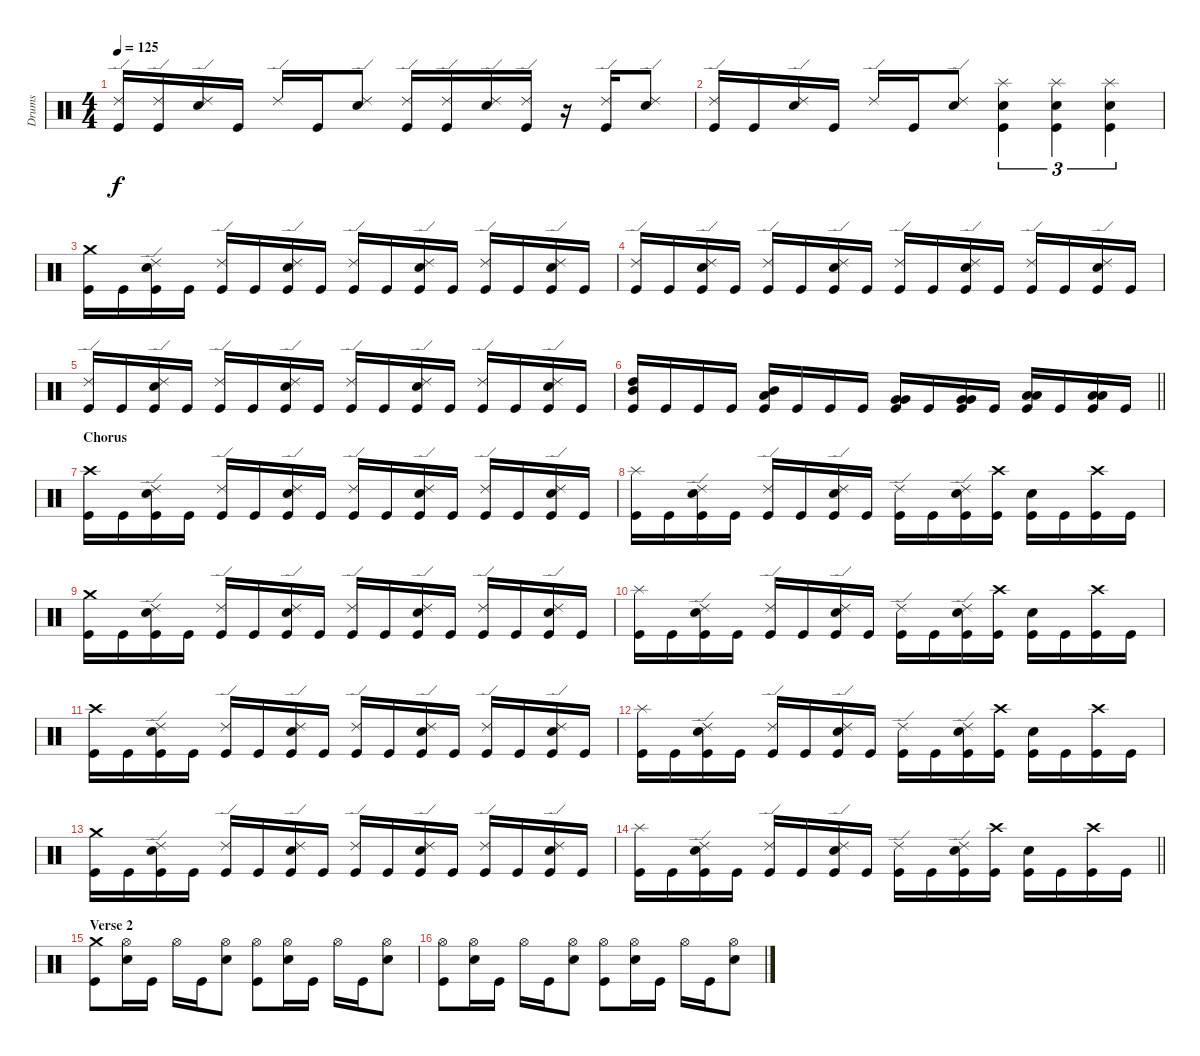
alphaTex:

\track ("Drums" "Drums") {instrument percussion}
\staff {score}
\articulation defaults
\ts (4 4)
\tempo 125
\clef neutral
\ks c
("Ride (edge) 2" "Kick (hit)").16{dy f} ("Ride (edge) 2" "Kick (hit)").16 ("Ride (edge) 2" "Snare (hit) 2").16 "Kick (hit)".16 "Ride (edge) 2".16 "Kick (hit)".16 ("Ride (edge) 2" "Snare (hit) 2").8 ("Ride (edge) 2" "Kick (hit)").16 ("Ride (edge) 2" "Kick (hit)").16 ("Ride (edge) 2" "Snare (hit) 2").16 ("Ride (edge) 2" "Kick (hit)").16 r.16 ("Ride (edge) 2" "Kick (hit)").16 ("Ride (edge) 2" "Snare (hit) 2").8 |
("Ride (edge) 2" "Kick (hit)").16 "Kick (hit)".16 ("Ride (edge) 2" "Snare (hit) 2").16 "Kick (hit)".16 "Ride (edge) 2".16 "Kick (hit)".16 ("Ride (edge) 2" "Snare (hit) 2").8 ("Splash (hit)" "Snare (hit) 2" "Kick (hit)").4{tu (3 2)} ("Splash (hit)" "Snare (hit) 2" "Kick (hit)").4{tu (3 2)} ("Splash (hit)" "Snare (hit) 2" "Kick (hit)").4{tu (3 2)} |
("Crash medium (hit)" "Kick (hit)").16 "Kick (hit)".16 ("Ride (edge) 2" "Snare (hit) 2" "Kick (hit)").16 "Kick (hit)".16 ("Ride (edge) 2" "Kick (hit)").16 "Kick (hit)".16 ("Ride (edge) 2" "Snare (hit) 2" "Kick (hit)").16 "Kick (hit)".16 ("Ride (edge) 2" "Kick (hit)").16 "Kick (hit)".16 ("Ride (edge) 2" "Snare (hit) 2" "Kick (hit)").16 "Kick (hit)".16 ("Ride (edge) 2" "Kick (hit)").16 "Kick (hit)".16 ("Ride (edge) 2" "Snare (hit) 2" "Kick (hit)").16 "Kick (hit)".16 |
("Ride (edge) 2" "Kick (hit)").16 "Kick (hit)".16 ("Ride (edge) 2" "Snare (hit) 2" "Kick (hit)").16 "Kick (hit)".16 ("Ride (edge) 2" "Kick (hit)").16 "Kick (hit)".16 ("Ride (edge) 2" "Snare (hit) 2" "Kick (hit)").16 "Kick (hit)".16 ("Ride (edge) 2" "Kick (hit)").16 "Kick (hit)".16 ("Ride (edge) 2" "Snare (hit) 2" "Kick (hit)").16 "Kick (hit)".16 ("Ride (edge) 2" "Kick (hit)").16 "Kick (hit)".16 ("Ride (edge) 2" "Snare (hit) 2" "Kick (hit)").16 "Kick (hit)".16 |
("Ride (edge) 2" "Kick (hit)").16 "Kick (hit)".16 ("Ride (edge) 2" "Snare (hit) 2" "Kick (hit)").16 "Kick (hit)".16 ("Ride (edge) 2" "Kick (hit)").16 "Kick (hit)".16 ("Ride (edge) 2" "Snare (hit) 2" "Kick (hit)").16 "Kick (hit)".16 ("Ride (edge) 2" "Kick (hit)").16 "Kick (hit)".16 ("Ride (edge) 2" "Snare (hit) 2" "Kick (hit)").16 "Kick (hit)".16 ("Ride (edge) 2" "Kick (hit)").16 "Kick (hit)".16 ("Ride (edge) 2" "Snare (hit) 2" "Kick (hit)").16 "Kick (hit)".16 |
\barLineRight lightlight
("High Tom (hit)" "Mid Tom (hit)" "Kick (hit)").16 "Kick (hit)".16 "Kick (hit)".16 "Kick (hit)".16 ("Mid Tom (hit)" "Low Tom (hit)" "Kick (hit)").16 "Kick (hit)".16 "Kick (hit)".16 "Kick (hit)".16 ("Very Low Tom (hit)" "Very Low Tom (hit)" "Kick (hit)").16 "Kick (hit)".16 ("Very Low Tom (hit)" "Very Low Tom (hit)" "Kick (hit)").16 "Kick (hit)".16 ("Low Floor Tom (hit)" "Low Floor Tom (hit)" "Kick (hit)").16 "Kick (hit)".16 ("Low Floor Tom (hit)" "Low Floor Tom (hit)" "Kick (hit)").16 "Kick (hit)".16 |
\section ("" "Chorus")
("Crash high (hit)" "Kick (hit)").16 "Kick (hit)".16 ("Ride (edge) 2" "Snare (hit) 2" "Kick (hit)").16 "Kick (hit)".16 ("Ride (edge) 2" "Kick (hit)").16 "Kick (hit)".16 ("Ride (edge) 2" "Snare (hit) 2" "Kick (hit)").16 "Kick (hit)".16 ("Ride (edge) 2" "Kick (hit)").16 "Kick (hit)".16 ("Ride (edge) 2" "Snare (hit) 2" "Kick (hit)").16 "Kick (hit)".16 ("Ride (edge) 2" "Kick (hit)").16 "Kick (hit)".16 ("Ride (edge) 2" "Snare (hit) 2" "Kick (hit)").16 "Kick (hit)".16 |
("Splash (hit)" "Kick (hit)").16 "Kick (hit)".16 ("Ride (edge) 2" "Snare (hit) 2" "Kick (hit)").16 "Kick (hit)".16 ("Ride (edge) 2" "Kick (hit)").16 "Kick (hit)".16 ("Ride (edge) 2" "Snare (hit) 2" "Kick (hit)").16 "Kick (hit)".16 ("Ride (edge) 2" "Kick (hit)").16 "Kick (hit)".16 ("Ride (edge) 2" "Snare (hit) 2" "Kick (hit)").16 ("Crash high (hit)" "Kick (hit)").16 ("Snare (hit) 2" "Kick (hit)").16 "Kick (hit)".16 ("Crash high (hit)" "Kick (hit)").16 "Kick (hit)".16 |
("Crash medium (hit)" "Kick (hit)").16 "Kick (hit)".16 ("Ride (edge) 2" "Snare (hit) 2" "Kick (hit)").16 "Kick (hit)".16 ("Ride (edge) 2" "Kick (hit)").16 "Kick (hit)".16 ("Ride (edge) 2" "Snare (hit) 2" "Kick (hit)").16 "Kick (hit)".16 ("Ride (edge) 2" "Kick (hit)").16 "Kick (hit)".16 ("Ride (edge) 2" "Snare (hit) 2" "Kick (hit)").16 "Kick (hit)".16 ("Ride (edge) 2" "Kick (hit)").16 "Kick (hit)".16 ("Ride (edge) 2" "Snare (hit) 2" "Kick (hit)").16 "Kick (hit)".16 |
("Splash (hit)" "Kick (hit)").16 "Kick (hit)".16 ("Ride (edge) 2" "Snare (hit) 2" "Kick (hit)").16 "Kick (hit)".16 ("Ride (edge) 2" "Kick (hit)").16 "Kick (hit)".16 ("Ride (edge) 2" "Snare (hit) 2" "Kick (hit)").16 "Kick (hit)".16 ("Ride (edge) 2" "Kick (hit)").16 "Kick (hit)".16 ("Ride (edge) 2" "Snare (hit) 2" "Kick (hit)").16 ("Crash high (hit)" "Kick (hit)").16 ("Snare (hit) 2" "Kick (hit)").16 "Kick (hit)".16 ("Crash high (hit)" "Kick (hit)").16 "Kick (hit)".16 |
("Crash high (hit)" "Kick (hit)").16 "Kick (hit)".16 ("Ride (edge) 2" "Snare (hit) 2" "Kick (hit)").16 "Kick (hit)".16 ("Ride (edge) 2" "Kick (hit)").16 "Kick (hit)".16 ("Ride (edge) 2" "Snare (hit) 2" "Kick (hit)").16 "Kick (hit)".16 ("Ride (edge) 2" "Kick (hit)").16 "Kick (hit)".16 ("Ride (edge) 2" "Snare (hit) 2" "Kick (hit)").16 "Kick (hit)".16 ("Ride (edge) 2" "Kick (hit)").16 "Kick (hit)".16 ("Ride (edge) 2" "Snare (hit) 2" "Kick (hit)").16 "Kick (hit)".16 |
("Splash (hit)" "Kick (hit)").16 "Kick (hit)".16 ("Ride (edge) 2" "Snare (hit) 2" "Kick (hit)").16 "Kick (hit)".16 ("Ride (edge) 2" "Kick (hit)").16 "Kick (hit)".16 ("Ride (edge) 2" "Snare (hit) 2" "Kick (hit)").16 "Kick (hit)".16 ("Ride (edge) 2" "Kick (hit)").16 "Kick (hit)".16 ("Ride (edge) 2" "Snare (hit) 2" "Kick (hit)").16 ("Crash high (hit)" "Kick (hit)").16 ("Snare (hit) 2" "Kick (hit)").16 "Kick (hit)".16 ("Crash high (hit)" "Kick (hit)").16 "Kick (hit)".16 |
("Crash medium (hit)" "Kick (hit)").16 "Kick (hit)".16 ("Ride (edge) 2" "Snare (hit) 2" "Kick (hit)").16 "Kick (hit)".16 ("Ride (edge) 2" "Kick (hit)").16 "Kick (hit)".16 ("Ride (edge) 2" "Snare (hit) 2" "Kick (hit)").16 "Kick (hit)".16 ("Ride (edge) 2" "Kick (hit)").16 "Kick (hit)".16 ("Ride (edge) 2" "Snare (hit) 2" "Kick (hit)").16 "Kick (hit)".16 ("Ride (edge) 2" "Kick (hit)").16 "Kick (hit)".16 ("Ride (edge) 2" "Snare (hit) 2" "Kick (hit)").16 "Kick (hit)".16 |
\barLineRight lightlight
("Splash (hit)" "Kick (hit)").16 "Kick (hit)".16 ("Ride (edge) 2" "Snare (hit) 2" "Kick (hit)").16 "Kick (hit)".16 ("Ride (edge) 2" "Kick (hit)").16 "Kick (hit)".16 ("Ride (edge) 2" "Snare (hit) 2" "Kick (hit)").16 "Kick (hit)".16 ("Ride (edge) 2" "Kick (hit)").16 "Kick (hit)".16 ("Ride (edge) 2" "Snare (hit) 2" "Kick (hit)").16 ("Crash high (hit)" "Kick (hit)").16 ("Snare (hit) 2" "Kick (hit)").16 "Kick (hit)".16 ("Crash high (hit)" "Kick (hit)").16 "Kick (hit)".16 |
\section ("" "Verse 2")
("Crash medium (hit)" "Kick (hit)").8 ("Hi-Hat (open)" "Snare (hit) 2").16 "Kick (hit)".16 "Hi-Hat (open)".16 "Kick (hit)".16 ("Hi-Hat (open)" "Snare (hit) 2").8 ("Hi-Hat (open)" "Kick (hit)").8 ("Hi-Hat (open)" "Snare (hit) 2").16 "Kick (hit)".16 "Hi-Hat (open)".16 "Kick (hit)".16 ("Hi-Hat (open)" "Snare (hit) 2").8 |
("Hi-Hat (open)" "Kick (hit)").8 ("Hi-Hat (open)" "Snare (hit) 2").16 "Kick (hit)".16 "Hi-Hat (open)".16 "Kick (hit)".16 ("Hi-Hat (open)" "Snare (hit) 2").8 ("Hi-Hat (open)" "Kick (hit)").8 ("Hi-Hat (open)" "Snare (hit) 2").16 "Kick (hit)".16 "Hi-Hat (open)".16 "Kick (hit)".16 ("Hi-Hat (open)" "Snare (hit) 2").8
